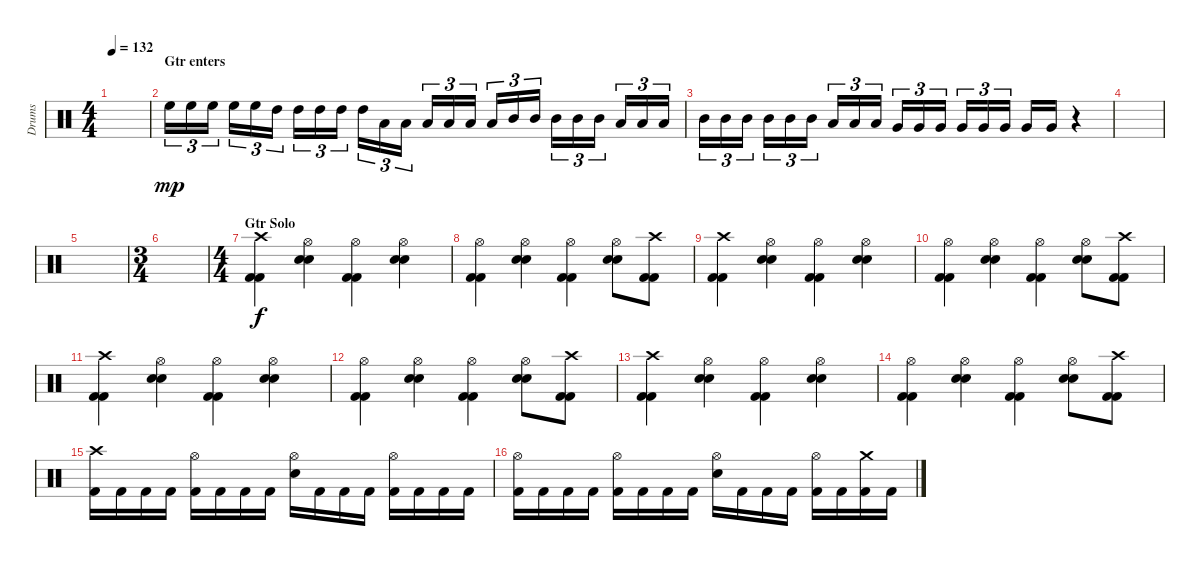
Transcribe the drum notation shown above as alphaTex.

\track ("Drums" "Drums") {instrument percussion}
\staff {score}
\articulation defaults
\ts (4 4)
\tempo 132
\clef neutral
\ks c
|
\section ("" "Gtr enters")
"High Floor Tom (hit)".16{tu (3 2) dy mp} "High Floor Tom (hit)".16{tu (3 2)} "High Floor Tom (hit)".16{tu (3 2)} "High Floor Tom (hit)".16{tu (3 2)} "High Floor Tom (hit)".16{tu (3 2)} "High Tom (hit)".16{tu (3 2)} "High Tom (hit)".16{tu (3 2)} "High Tom (hit)".16{tu (3 2)} "High Tom (hit)".16{tu (3 2)} "High Tom (hit)".16{tu (3 2)} "Low Tom (hit)".16{tu (3 2)} "Low Tom (hit)".16{tu (3 2)} "Low Tom (hit)".16{tu (3 2)} "Low Tom (hit)".16{tu (3 2)} "Low Tom (hit)".16{tu (3 2)} "Low Tom (hit)".16{tu (3 2)} "Mid Tom (hit)".16{tu (3 2)} "Mid Tom (hit)".16{tu (3 2)} "Mid Tom (hit)".16{tu (3 2)} "Mid Tom (hit)".16{tu (3 2)} "Mid Tom (hit)".16{tu (3 2)} "Low Tom (hit)".16{tu (3 2)} "Low Tom (hit)".16{tu (3 2)} "Low Tom (hit)".16{tu (3 2)} |
"Mid Tom (hit)".16{tu (3 2)} "Mid Tom (hit)".16{tu (3 2)} "Mid Tom (hit)".16{tu (3 2)} "Mid Tom (hit)".16{tu (3 2)} "Mid Tom (hit)".16{tu (3 2)} "Mid Tom (hit)".16{tu (3 2)} "Low Tom (hit)".16{tu (3 2)} "Low Tom (hit)".16{tu (3 2)} "Low Tom (hit)".16{tu (3 2)} "Very Low Tom (hit)".16{tu (3 2)} "Very Low Tom (hit)".16{tu (3 2)} "Very Low Tom (hit)".16{tu (3 2)} "Very Low Tom (hit)".16{tu (3 2)} "Very Low Tom (hit)".16{tu (3 2)} "Very Low Tom (hit)".16{tu (3 2)} "Very Low Tom (hit)".16 "Very Low Tom (hit)".16 r.4 |
|
|
\ts (3 4)
|
\ts (4 4)
\section ("" "Gtr Solo")
("Crash high (hit)" "Kick (hit) 2" "Kick (hit) 2").4{dy f} ("Hi-Hat (open)" "Snare (hit) 2" "Snare (hit) 2").4 ("Hi-Hat (open)" "Kick (hit) 2" "Kick (hit) 2").4 ("Hi-Hat (open)" "Snare (hit) 2" "Snare (hit) 2").4 |
("Hi-Hat (open)" "Kick (hit) 2" "Kick (hit) 2").4 ("Hi-Hat (open)" "Snare (hit) 2" "Snare (hit) 2").4 ("Hi-Hat (open)" "Kick (hit) 2" "Kick (hit) 2").4 ("Hi-Hat (open)" "Snare (hit) 2" "Snare (hit) 2").8 ("Crash high (hit)" "Kick (hit) 2" "Kick (hit) 2").8 |
("Crash high (hit)" "Kick (hit) 2" "Kick (hit) 2").4 ("Hi-Hat (open)" "Snare (hit) 2" "Snare (hit) 2").4 ("Hi-Hat (open)" "Kick (hit) 2" "Kick (hit) 2").4 ("Hi-Hat (open)" "Snare (hit) 2" "Snare (hit) 2").4 |
("Hi-Hat (open)" "Kick (hit) 2" "Kick (hit) 2").4 ("Hi-Hat (open)" "Snare (hit) 2" "Snare (hit) 2").4 ("Hi-Hat (open)" "Kick (hit) 2" "Kick (hit) 2").4 ("Hi-Hat (open)" "Snare (hit) 2" "Snare (hit) 2").8 ("Crash high (hit)" "Kick (hit) 2" "Kick (hit) 2").8 |
("Crash high (hit)" "Kick (hit) 2" "Kick (hit) 2").4 ("Hi-Hat (open)" "Snare (hit) 2" "Snare (hit) 2").4 ("Hi-Hat (open)" "Kick (hit) 2" "Kick (hit) 2").4 ("Hi-Hat (open)" "Snare (hit) 2" "Snare (hit) 2").4 |
("Hi-Hat (open)" "Kick (hit) 2" "Kick (hit) 2").4 ("Hi-Hat (open)" "Snare (hit) 2" "Snare (hit) 2").4 ("Hi-Hat (open)" "Kick (hit) 2" "Kick (hit) 2").4 ("Hi-Hat (open)" "Snare (hit) 2" "Snare (hit) 2").8 ("Crash high (hit)" "Kick (hit) 2" "Kick (hit) 2").8 |
("Crash high (hit)" "Kick (hit) 2" "Kick (hit) 2").4 ("Hi-Hat (open)" "Snare (hit) 2" "Snare (hit) 2").4 ("Hi-Hat (open)" "Kick (hit) 2" "Kick (hit) 2").4 ("Hi-Hat (open)" "Snare (hit) 2" "Snare (hit) 2").4 |
("Hi-Hat (open)" "Kick (hit) 2" "Kick (hit) 2").4 ("Hi-Hat (open)" "Snare (hit) 2" "Snare (hit) 2").4 ("Hi-Hat (open)" "Kick (hit) 2" "Kick (hit) 2").4 ("Hi-Hat (open)" "Snare (hit) 2" "Snare (hit) 2").8 ("Crash high (hit)" "Kick (hit) 2" "Kick (hit) 2").8 |
("Crash high (hit)" "Kick (hit) 2").16 "Kick (hit) 2".16 "Kick (hit) 2".16 "Kick (hit) 2".16 ("Hi-Hat (open)" "Kick (hit) 2").16 "Kick (hit) 2".16 "Kick (hit) 2".16 "Kick (hit) 2".16 ("Hi-Hat (open)" "Snare (hit) 2").16 "Kick (hit) 2".16 "Kick (hit) 2".16 "Kick (hit) 2".16 ("Hi-Hat (open)" "Kick (hit) 2").16 "Kick (hit) 2".16 "Kick (hit) 2".16 "Kick (hit) 2".16 |
("Hi-Hat (open)" "Kick (hit) 2").16 "Kick (hit) 2".16 "Kick (hit) 2".16 "Kick (hit) 2".16 ("Hi-Hat (open)" "Kick (hit) 2").16 "Kick (hit) 2".16 "Kick (hit) 2".16 "Kick (hit) 2".16 ("Hi-Hat (open)" "Snare (hit) 2").16 "Kick (hit) 2".16 "Kick (hit) 2".16 "Kick (hit) 2".16 ("Hi-Hat (open)" "Kick (hit) 2").16 "Kick (hit) 2".16 ("Crash medium (hit)" "Kick (hit) 2").16 "Kick (hit) 2".16
